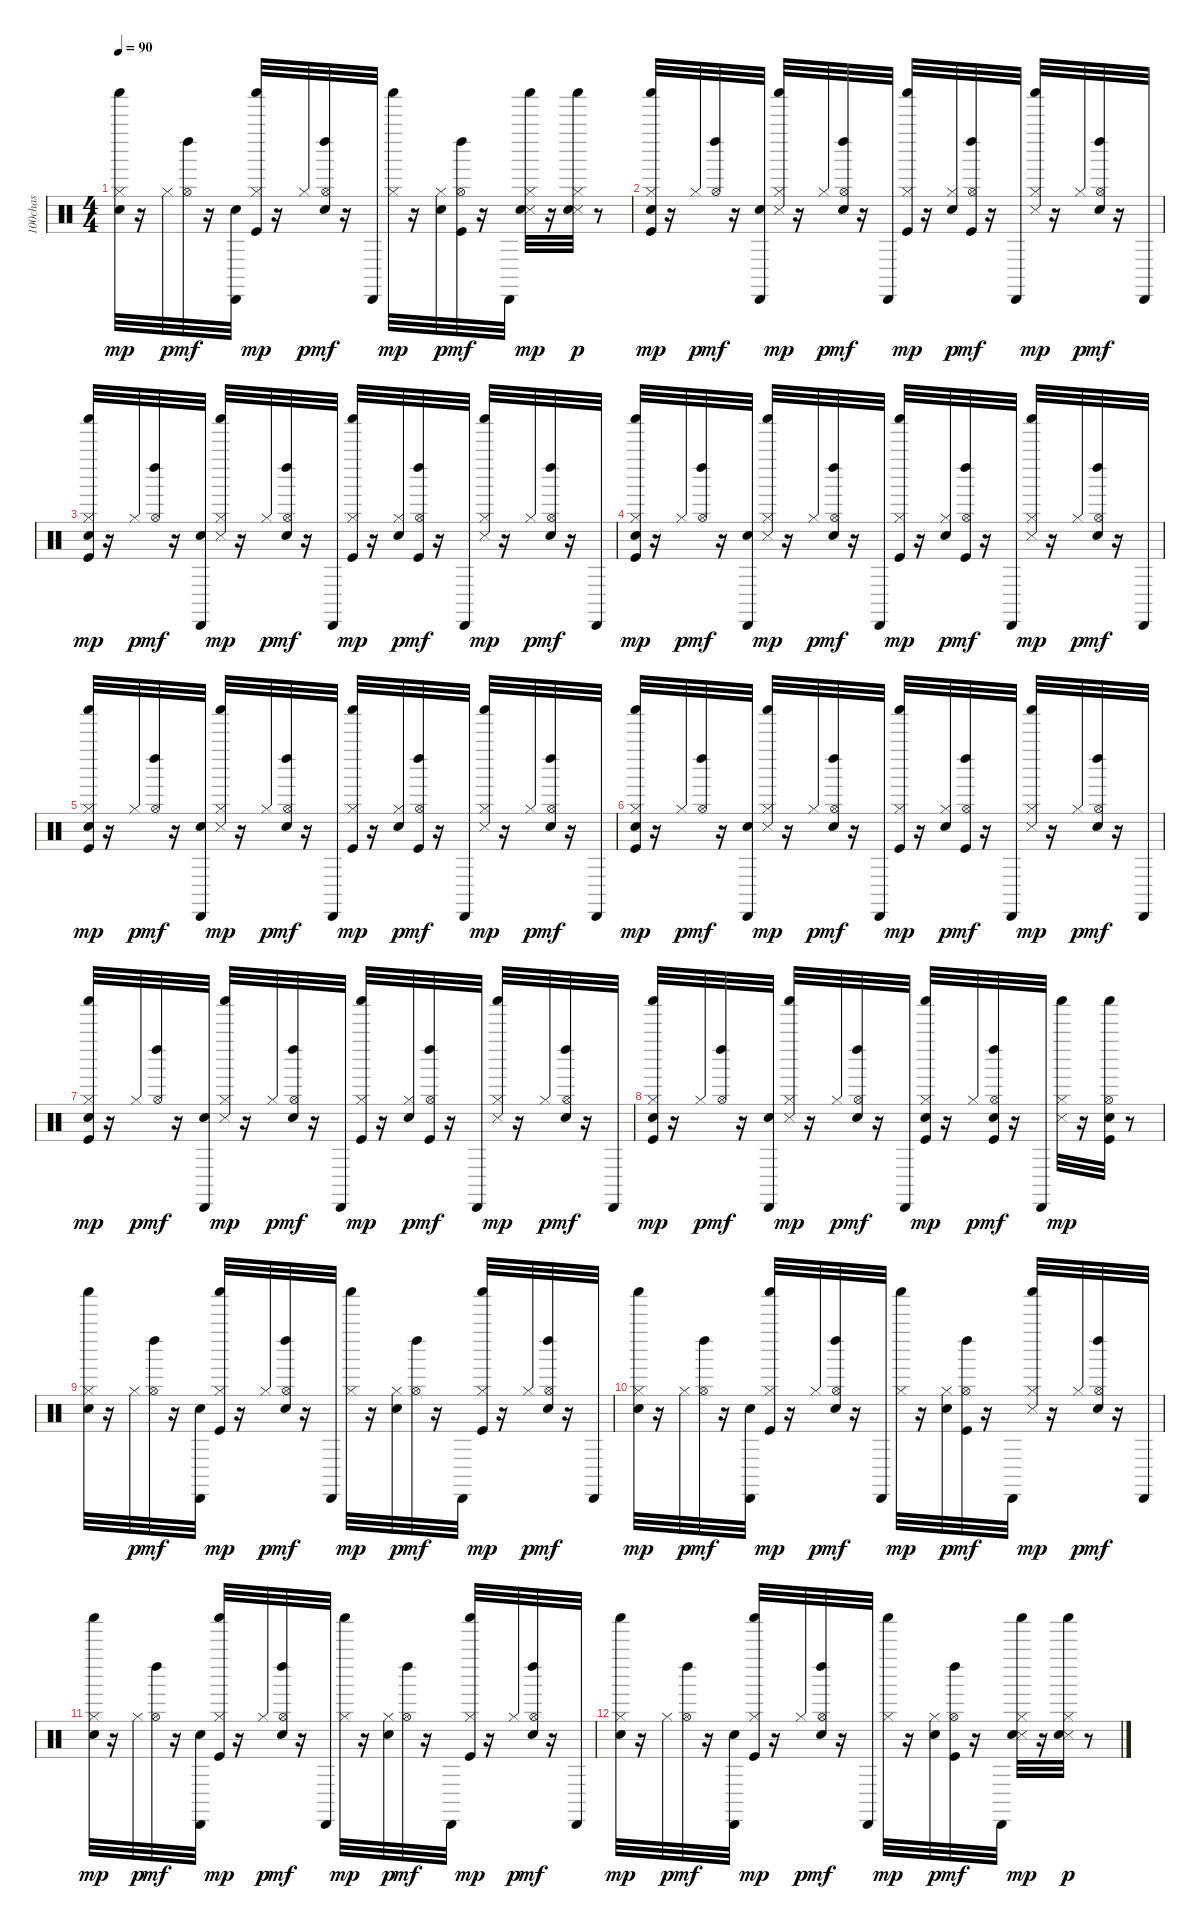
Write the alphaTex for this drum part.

\track ("100chas" "100chas") {instrument percussion}
\staff {score}
\articulation defaults
\ts (4 4)
\tempo 90
\clef neutral
\ks c
("Hand Clap (hit)" "Hi-Hat (closed)" "Shaker (hit)").32{dy mp} r.16 "Hi-Hat (closed)".32{dy p} ("Hi-Hat (open)" "Left Maraca (hit)").32{dy mf} r.16 ("Hand Clap (hit)" "Cabasa (hit)").32 ("Kick (hit)" "Hi-Hat (closed)" "Shaker (hit)").32{dy mp} r.16 "Hi-Hat (closed)".32{dy p} ("Hand Clap (hit)" "Hi-Hat (open)" "Left Maraca (hit)").32{dy mf} r.16 "Cabasa (hit)".32 ("Hi-Hat (closed)" "Shaker (hit)").32{dy mp} r.16 ("Hand Clap (hit)" "Hi-Hat (closed)").32{dy p} ("Kick (hit)" "Hi-Hat (open)" "Left Maraca (hit)").32{dy mf} r.16 "Cabasa (hit)".32 ("Snare (side stick) 3" "Hand Clap (hit)" "Hi-Hat (closed)" "Shaker (hit)").32{dy mp} r.16 ("Snare (side stick) 3" "Hand Clap (hit)" "Hi-Hat (closed)" "Shaker (hit)").32{dy p} r.8 |
("Kick (hit)" "Hand Clap (hit)" "Hi-Hat (closed)" "Shaker (hit)").32{dy mp} r.16 "Hi-Hat (closed)".32{dy p} ("Hi-Hat (open)" "Left Maraca (hit)").32{dy mf} r.16 ("Hand Clap (hit)" "Cabasa (hit)").32 ("Snare (side stick) 3" "Hi-Hat (closed)" "Shaker (hit)").32{dy mp} r.16 "Hi-Hat (closed)".32{dy p} ("Hand Clap (hit)" "Hi-Hat (open)" "Left Maraca (hit)").32{dy mf} r.16 "Cabasa (hit)".32 ("Kick (hit)" "Hi-Hat (closed)" "Shaker (hit)").32{dy mp} r.16 ("Hand Clap (hit)" "Hi-Hat (closed)").32{dy p} ("Kick (hit)" "Hi-Hat (open)" "Left Maraca (hit)").32{dy mf} r.16 "Cabasa (hit)".32 ("Snare (side stick) 3" "Hi-Hat (closed)" "Shaker (hit)").32{dy mp} r.16 "Hi-Hat (closed)".32{dy p} ("Hand Clap (hit)" "Hi-Hat (open)" "Left Maraca (hit)").32{dy mf} r.16 "Cabasa (hit)".32 |
("Kick (hit)" "Hand Clap (hit)" "Hi-Hat (closed)" "Shaker (hit)").32{dy mp} r.16 "Hi-Hat (closed)".32{dy p} ("Hi-Hat (open)" "Left Maraca (hit)").32{dy mf} r.16 ("Hand Clap (hit)" "Cabasa (hit)").32 ("Snare (side stick) 3" "Hi-Hat (closed)" "Shaker (hit)").32{dy mp} r.16 "Hi-Hat (closed)".32{dy p} ("Hand Clap (hit)" "Hi-Hat (open)" "Left Maraca (hit)").32{dy mf} r.16 "Cabasa (hit)".32 ("Kick (hit)" "Hi-Hat (closed)" "Shaker (hit)").32{dy mp} r.16 ("Hand Clap (hit)" "Hi-Hat (closed)").32{dy p} ("Kick (hit)" "Hi-Hat (open)" "Left Maraca (hit)").32{dy mf} r.16 "Cabasa (hit)".32 ("Snare (side stick) 3" "Hi-Hat (closed)" "Shaker (hit)").32{dy mp} r.16 "Hi-Hat (closed)".32{dy p} ("Hand Clap (hit)" "Hi-Hat (open)" "Left Maraca (hit)").32{dy mf} r.16 "Cabasa (hit)".32 |
("Kick (hit)" "Hand Clap (hit)" "Hi-Hat (closed)" "Shaker (hit)").32{dy mp} r.16 "Hi-Hat (closed)".32{dy p} ("Hi-Hat (open)" "Left Maraca (hit)").32{dy mf} r.16 ("Hand Clap (hit)" "Cabasa (hit)").32 ("Snare (side stick) 3" "Hi-Hat (closed)" "Shaker (hit)").32{dy mp} r.16 "Hi-Hat (closed)".32{dy p} ("Hand Clap (hit)" "Hi-Hat (open)" "Left Maraca (hit)").32{dy mf} r.16 "Cabasa (hit)".32 ("Kick (hit)" "Hi-Hat (closed)" "Shaker (hit)").32{dy mp} r.16 ("Hand Clap (hit)" "Hi-Hat (closed)").32{dy p} ("Kick (hit)" "Hi-Hat (open)" "Left Maraca (hit)").32{dy mf} r.16 "Cabasa (hit)".32 ("Snare (side stick) 3" "Hi-Hat (closed)" "Shaker (hit)").32{dy mp} r.16 "Hi-Hat (closed)".32{dy p} ("Hand Clap (hit)" "Hi-Hat (open)" "Left Maraca (hit)").32{dy mf} r.16 "Cabasa (hit)".32 |
("Kick (hit)" "Hand Clap (hit)" "Hi-Hat (closed)" "Shaker (hit)").32{dy mp} r.16 "Hi-Hat (closed)".32{dy p} ("Hi-Hat (open)" "Left Maraca (hit)").32{dy mf} r.16 ("Hand Clap (hit)" "Cabasa (hit)").32 ("Snare (side stick) 3" "Hi-Hat (closed)" "Shaker (hit)").32{dy mp} r.16 "Hi-Hat (closed)".32{dy p} ("Hand Clap (hit)" "Hi-Hat (open)" "Left Maraca (hit)").32{dy mf} r.16 "Cabasa (hit)".32 ("Kick (hit)" "Hi-Hat (closed)" "Shaker (hit)").32{dy mp} r.16 ("Hand Clap (hit)" "Hi-Hat (closed)").32{dy p} ("Kick (hit)" "Hi-Hat (open)" "Left Maraca (hit)").32{dy mf} r.16 "Cabasa (hit)".32 ("Snare (side stick) 3" "Hi-Hat (closed)" "Shaker (hit)").32{dy mp} r.16 "Hi-Hat (closed)".32{dy p} ("Hand Clap (hit)" "Hi-Hat (open)" "Left Maraca (hit)").32{dy mf} r.16 "Cabasa (hit)".32 |
("Kick (hit)" "Hand Clap (hit)" "Hi-Hat (closed)" "Shaker (hit)").32{dy mp} r.16 "Hi-Hat (closed)".32{dy p} ("Hi-Hat (open)" "Left Maraca (hit)").32{dy mf} r.16 ("Hand Clap (hit)" "Cabasa (hit)").32 ("Snare (side stick) 3" "Hi-Hat (closed)" "Shaker (hit)").32{dy mp} r.16 "Hi-Hat (closed)".32{dy p} ("Hand Clap (hit)" "Hi-Hat (open)" "Left Maraca (hit)").32{dy mf} r.16 "Cabasa (hit)".32 ("Kick (hit)" "Hi-Hat (closed)" "Shaker (hit)").32{dy mp} r.16 ("Hand Clap (hit)" "Hi-Hat (closed)").32{dy p} ("Kick (hit)" "Hi-Hat (open)" "Left Maraca (hit)").32{dy mf} r.16 "Cabasa (hit)".32 ("Snare (side stick) 3" "Hi-Hat (closed)" "Shaker (hit)").32{dy mp} r.16 "Hi-Hat (closed)".32{dy p} ("Hand Clap (hit)" "Hi-Hat (open)" "Left Maraca (hit)").32{dy mf} r.16 "Cabasa (hit)".32 |
("Kick (hit)" "Hand Clap (hit)" "Hi-Hat (closed)" "Shaker (hit)").32{dy mp} r.16 "Hi-Hat (closed)".32{dy p} ("Hi-Hat (open)" "Left Maraca (hit)").32{dy mf} r.16 ("Hand Clap (hit)" "Cabasa (hit)").32 ("Snare (side stick) 3" "Hi-Hat (closed)" "Shaker (hit)").32{dy mp} r.16 "Hi-Hat (closed)".32{dy p} ("Hand Clap (hit)" "Hi-Hat (open)" "Left Maraca (hit)").32{dy mf} r.16 "Cabasa (hit)".32 ("Kick (hit)" "Hi-Hat (closed)" "Shaker (hit)").32{dy mp} r.16 ("Hand Clap (hit)" "Hi-Hat (closed)").32{dy p} ("Kick (hit)" "Hi-Hat (open)" "Left Maraca (hit)").32{dy mf} r.16 "Cabasa (hit)".32 ("Snare (side stick) 3" "Hi-Hat (closed)" "Shaker (hit)").32{dy mp} r.16 "Hi-Hat (closed)".32{dy p} ("Hand Clap (hit)" "Hi-Hat (open)" "Left Maraca (hit)").32{dy mf} r.16 "Cabasa (hit)".32 |
("Kick (hit)" "Hand Clap (hit)" "Hi-Hat (closed)" "Shaker (hit)").32{dy mp} r.16 "Hi-Hat (closed)".32{dy p} ("Hi-Hat (open)" "Left Maraca (hit)").32{dy mf} r.16 ("Hand Clap (hit)" "Cabasa (hit)").32 ("Snare (side stick) 3" "Hi-Hat (closed)" "Shaker (hit)").32{dy mp} r.16 "Hi-Hat (closed)".32{dy p} ("Hand Clap (hit)" "Hi-Hat (open)" "Left Maraca (hit)").32{dy mf} r.16 "Cabasa (hit)".32 ("Kick (hit)" "Hand Clap (hit)" "Hi-Hat (closed)" "Shaker (hit)").32{dy mp} r.16 "Hi-Hat (closed)".32{dy p} ("Kick (hit)" "Hand Clap (hit)" "Hi-Hat (open)" "Left Maraca (hit)").32{dy mf} r.16 "Cabasa (hit)".32 ("Snare (side stick) 3" "Hi-Hat (closed)" "Shaker (hit)").32{dy mp} r.16 ("Kick (hit)" "Hand Clap (hit)" "Hi-Hat (open)" "Shaker (hit)").32 r.8 |
("Hand Clap (hit)" "Hi-Hat (closed)" "Shaker (hit)").32 r.16 "Hi-Hat (closed)".32{dy p} ("Hi-Hat (open)" "Left Maraca (hit)").32{dy mf} r.16 ("Hand Clap (hit)" "Cabasa (hit)").32 ("Kick (hit)" "Hi-Hat (closed)" "Shaker (hit)").32{dy mp} r.16 "Hi-Hat (closed)".32{dy p} ("Hand Clap (hit)" "Hi-Hat (open)" "Left Maraca (hit)").32{dy mf} r.16 "Cabasa (hit)".32 ("Hi-Hat (closed)" "Shaker (hit)").32{dy mp} r.16 ("Hand Clap (hit)" "Hi-Hat (closed)").32{dy p} ("Hi-Hat (open)" "Left Maraca (hit)").32{dy mf} r.16 "Cabasa (hit)".32 ("Kick (hit)" "Hi-Hat (closed)" "Shaker (hit)").32{dy mp} r.16 "Hi-Hat (closed)".32{dy p} ("Hand Clap (hit)" "Hi-Hat (open)" "Left Maraca (hit)").32{dy mf} r.16 "Cabasa (hit)".32 |
("Hand Clap (hit)" "Hi-Hat (closed)" "Shaker (hit)").32{dy mp} r.16 "Hi-Hat (closed)".32{dy p} ("Hi-Hat (open)" "Left Maraca (hit)").32{dy mf} r.16 ("Hand Clap (hit)" "Cabasa (hit)").32 ("Kick (hit)" "Hi-Hat (closed)" "Shaker (hit)").32{dy mp} r.16 "Hi-Hat (closed)".32{dy p} ("Hand Clap (hit)" "Hi-Hat (open)" "Left Maraca (hit)").32{dy mf} r.16 "Cabasa (hit)".32 ("Hi-Hat (closed)" "Shaker (hit)").32{dy mp} r.16 ("Hand Clap (hit)" "Hi-Hat (closed)").32{dy p} ("Kick (hit)" "Hi-Hat (open)" "Left Maraca (hit)").32{dy mf} r.16 "Cabasa (hit)".32 ("Snare (side stick) 3" "Hi-Hat (closed)" "Shaker (hit)").32{dy mp} r.16 "Hi-Hat (closed)".32{dy p} ("Hand Clap (hit)" "Hi-Hat (open)" "Left Maraca (hit)").32{dy mf} r.16 "Cabasa (hit)".32 |
("Hand Clap (hit)" "Hi-Hat (closed)" "Shaker (hit)").32{dy mp} r.16 "Hi-Hat (closed)".32{dy p} ("Hi-Hat (open)" "Left Maraca (hit)").32{dy mf} r.16 ("Hand Clap (hit)" "Cabasa (hit)").32 ("Kick (hit)" "Hi-Hat (closed)" "Shaker (hit)").32{dy mp} r.16 "Hi-Hat (closed)".32{dy p} ("Hand Clap (hit)" "Hi-Hat (open)" "Left Maraca (hit)").32{dy mf} r.16 "Cabasa (hit)".32 ("Hi-Hat (closed)" "Shaker (hit)").32{dy mp} r.16 ("Hand Clap (hit)" "Hi-Hat (closed)").32{dy p} ("Hi-Hat (open)" "Left Maraca (hit)").32{dy mf} r.16 "Cabasa (hit)".32 ("Kick (hit)" "Hi-Hat (closed)" "Shaker (hit)").32{dy mp} r.16 "Hi-Hat (closed)".32{dy p} ("Hand Clap (hit)" "Hi-Hat (open)" "Left Maraca (hit)").32{dy mf} r.16 "Cabasa (hit)".32 |
("Hand Clap (hit)" "Hi-Hat (closed)" "Shaker (hit)").32{dy mp} r.16 "Hi-Hat (closed)".32{dy p} ("Hi-Hat (open)" "Left Maraca (hit)").32{dy mf} r.16 ("Hand Clap (hit)" "Cabasa (hit)").32 ("Kick (hit)" "Hi-Hat (closed)" "Shaker (hit)").32{dy mp} r.16 "Hi-Hat (closed)".32{dy p} ("Hand Clap (hit)" "Hi-Hat (open)" "Left Maraca (hit)").32{dy mf} r.16 "Cabasa (hit)".32 ("Hi-Hat (closed)" "Shaker (hit)").32{dy mp} r.16 ("Hand Clap (hit)" "Hi-Hat (closed)").32{dy p} ("Kick (hit)" "Hi-Hat (open)" "Left Maraca (hit)").32{dy mf} r.16 "Cabasa (hit)".32 ("Snare (side stick) 3" "Hand Clap (hit)" "Hi-Hat (closed)" "Shaker (hit)").32{dy mp} r.16 ("Snare (side stick) 3" "Hand Clap (hit)" "Hi-Hat (closed)" "Shaker (hit)").32{dy p} r.8
